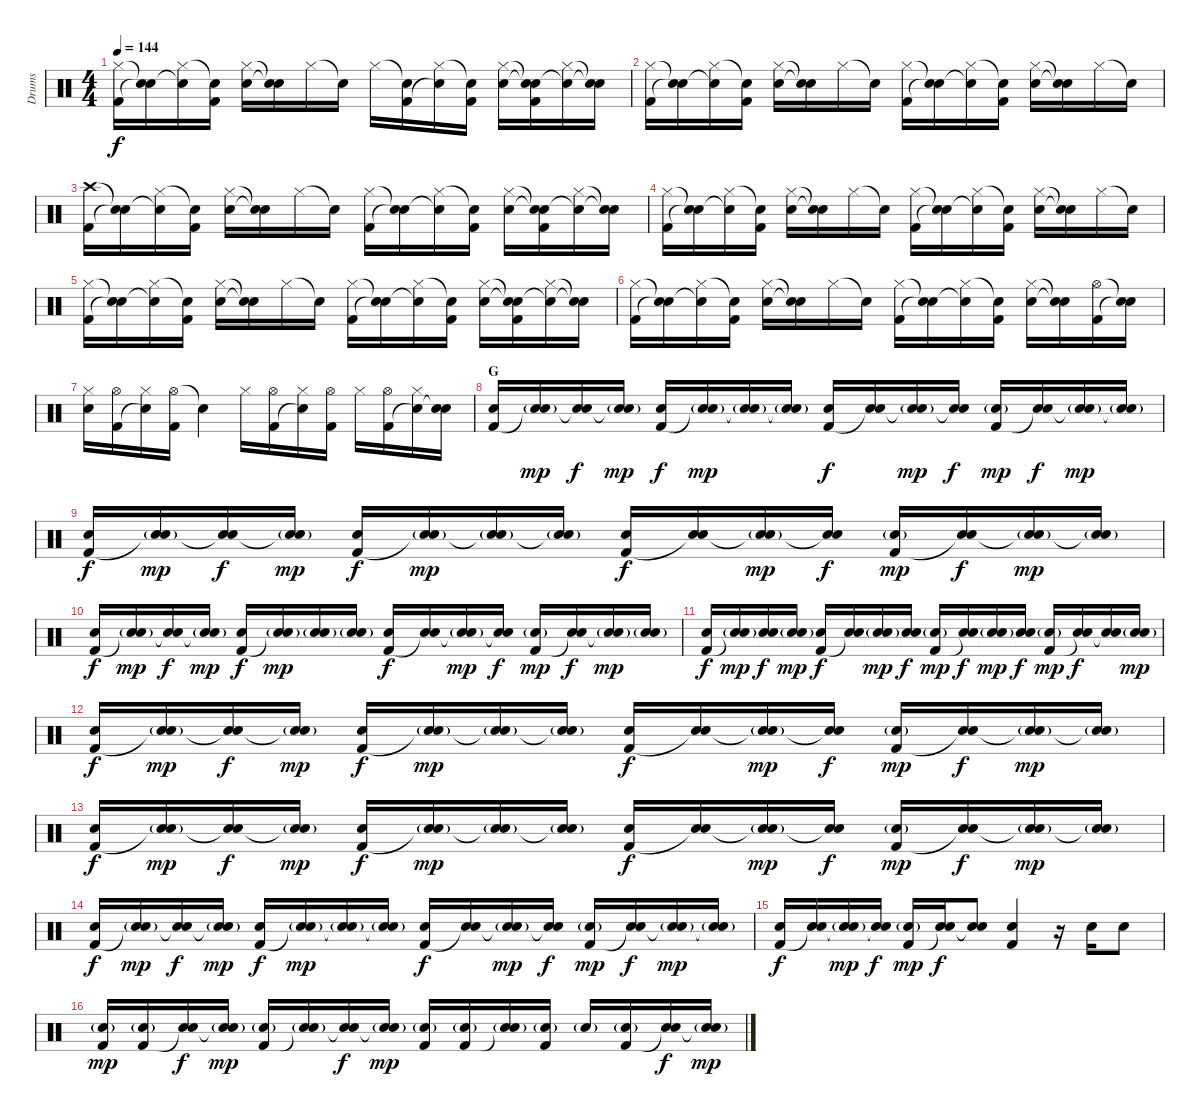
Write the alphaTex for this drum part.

\track ("Drums" "Drums") {instrument percussion}
\staff {score}
\articulation defaults
\ts (4 4)
\tempo 144
\clef neutral
\ks c
("Hi-Hat (closed)" "Kick (hit) 2").16{dy f} ("Snare (hit)"{t} "Snare (hit)"{t}).16 ("Hi-Hat (closed)" "Snare (hit)"{t}).16 ("Snare (hit)"{t} "Kick (hit) 2").16 ("Hi-Hat (closed)" "Snare (hit) 2").16 ("Snare (hit)"{t} "Snare (hit)"{t}).16 "Hi-Hat (closed)".16 "Snare (hit)"{t}.16 "Hi-Hat (closed)".16 ("Snare (hit)"{t} "Kick (hit) 2").16 ("Hi-Hat (closed)" "Snare (hit)"{t}).16 ("Snare (hit)"{t} "Kick (hit) 2").16 ("Hi-Hat (closed)" "Snare (hit) 2").16 ("Snare (hit)"{t} "Snare (hit)"{t} "Kick (hit) 2").16 ("Hi-Hat (closed)" "Snare (hit)"{t}).16 ("Snare (hit)"{t} "Snare (hit)"{t}).16 |
("Hi-Hat (closed)" "Kick (hit) 2").16 ("Snare (hit)"{t} "Snare (hit)"{t}).16 ("Hi-Hat (closed)" "Snare (hit)"{t}).16 ("Snare (hit)"{t} "Kick (hit) 2").16 ("Hi-Hat (closed)" "Snare (hit) 2").16 ("Snare (hit)"{t} "Snare (hit)"{t}).16 "Hi-Hat (closed)".16 "Snare (hit)"{t}.16 ("Hi-Hat (closed)" "Kick (hit) 2").16 ("Snare (hit)"{t} "Snare (hit)"{t}).16 ("Hi-Hat (closed)" "Snare (hit)"{t}).16 ("Snare (hit)"{t} "Kick (hit) 2").16 ("Hi-Hat (closed)" "Snare (hit) 2").16 ("Snare (hit)"{t} "Snare (hit)"{t}).16 "Hi-Hat (closed)".16 "Snare (hit)"{t}.16 |
("Crash high (hit)" "Kick (hit) 2").16 ("Snare (hit)"{t} "Snare (hit)"{t}).16 ("Hi-Hat (closed)" "Snare (hit)"{t}).16 ("Snare (hit)"{t} "Kick (hit) 2").16 ("Hi-Hat (closed)" "Snare (hit) 2").16 ("Snare (hit)"{t} "Snare (hit)"{t}).16 "Hi-Hat (closed)".16 "Snare (hit)"{t}.16 ("Hi-Hat (closed)" "Kick (hit) 2").16 ("Snare (hit)"{t} "Snare (hit)"{t}).16 ("Hi-Hat (closed)" "Snare (hit)"{t}).16 ("Snare (hit)"{t} "Kick (hit) 2").16 ("Hi-Hat (closed)" "Snare (hit) 2").16 ("Snare (hit)"{t} "Snare (hit)"{t} "Kick (hit) 2").16 ("Hi-Hat (closed)" "Snare (hit)"{t}).16 ("Snare (hit)"{t} "Snare (hit)"{t}).16 |
("Hi-Hat (closed)" "Kick (hit) 2").16 ("Snare (hit)"{t} "Snare (hit)"{t}).16 ("Hi-Hat (closed)" "Snare (hit)"{t}).16 ("Snare (hit)"{t} "Kick (hit) 2").16 ("Hi-Hat (closed)" "Snare (hit) 2").16 ("Snare (hit)"{t} "Snare (hit)"{t}).16 "Hi-Hat (closed)".16 "Snare (hit)"{t}.16 ("Hi-Hat (closed)" "Kick (hit) 2").16 ("Snare (hit)"{t} "Snare (hit)"{t}).16 ("Hi-Hat (closed)" "Snare (hit)"{t}).16 ("Snare (hit)"{t} "Kick (hit) 2").16 ("Hi-Hat (closed)" "Snare (hit) 2").16 ("Snare (hit)"{t} "Snare (hit)"{t}).16 "Hi-Hat (closed)".16 "Snare (hit)"{t}.16 |
("Hi-Hat (closed)" "Kick (hit) 2").16 ("Snare (hit)"{t} "Snare (hit)"{t}).16 ("Hi-Hat (closed)" "Snare (hit)"{t}).16 ("Snare (hit)"{t} "Kick (hit) 2").16 ("Hi-Hat (closed)" "Snare (hit) 2").16 ("Snare (hit)"{t} "Snare (hit)"{t}).16 "Hi-Hat (closed)".16 "Snare (hit)"{t}.16 ("Hi-Hat (closed)" "Kick (hit) 2").16 ("Snare (hit)"{t} "Snare (hit)"{t}).16 ("Hi-Hat (closed)" "Snare (hit)"{t}).16 ("Snare (hit)"{t} "Kick (hit) 2").16 ("Hi-Hat (closed)" "Snare (hit) 2").16 ("Snare (hit)"{t} "Snare (hit)"{t} "Kick (hit) 2").16 ("Hi-Hat (closed)" "Snare (hit)"{t}).16 ("Snare (hit)"{t} "Snare (hit)"{t}).16 |
("Hi-Hat (closed)" "Kick (hit) 2").16 ("Snare (hit)"{t} "Snare (hit)"{t}).16 ("Hi-Hat (closed)" "Snare (hit)"{t}).16 ("Snare (hit)"{t} "Kick (hit) 2").16 ("Hi-Hat (closed)" "Snare (hit) 2").16 ("Snare (hit)"{t} "Snare (hit)"{t}).16 "Hi-Hat (closed)".16 "Snare (hit)"{t}.16 ("Hi-Hat (closed)" "Kick (hit) 2").16 ("Snare (hit)"{t} "Snare (hit)"{t}).16 ("Hi-Hat (closed)" "Snare (hit)"{t}).16 ("Snare (hit)"{t} "Kick (hit) 2").16 ("Hi-Hat (closed)" "Snare (hit) 2").16 ("Snare (hit)"{t} "Snare (hit)"{t}).16 ("Hi-Hat (open)" "Kick (hit) 2").16 ("Snare (hit)"{t} "Snare (hit)"{t}).16 |
("Hi-Hat (closed)" "Snare (hit) 2").16 ("Hi-Hat (open)" "Kick (hit) 2").16 ("Hi-Hat (closed)" "Snare (hit)"{t}).16 ("Hi-Hat (open)" "Kick (hit) 2").16 "Snare (hit)"{t}.4 "Hi-Hat (closed)".16 ("Hi-Hat (open)" "Kick (hit) 2").16 ("Hi-Hat (closed)" "Snare (hit)"{t}).16 ("Hi-Hat (open)" "Kick (hit) 2").16 "Hi-Hat (closed)".16 ("Hi-Hat (open)" "Kick (hit) 2").16 ("Hi-Hat (closed)" "Snare (hit)"{t}).16 ("Snare (hit) 2" "Snare (hit)"{t}).16 |
\section ("" "G")
("Snare (hit) 2" "Kick (hit) 2").16 ("Snare (hit) 2"{g} "Snare (hit)"{t}).16{dy mp} ("Snare (hit) 2" "Snare (hit)"{t}).16{dy f} ("Snare (hit) 2"{g} "Snare (hit)"{t}).16{dy mp} ("Snare (hit) 2" "Kick (hit) 2").16{dy f} ("Snare (hit) 2"{g} "Snare (hit)"{t}).16{dy mp} ("Snare (hit) 2"{g} "Snare (hit)"{t}).16 ("Snare (hit) 2"{g} "Snare (hit)"{t}).16 ("Snare (hit) 2" "Kick (hit) 2").16{dy f} ("Snare (hit) 2" "Snare (hit)"{t}).16 ("Snare (hit) 2"{g} "Snare (hit)"{t}).16{dy mp} ("Snare (hit) 2" "Snare (hit)"{t}).16{dy f} ("Snare (hit) 2"{g} "Kick (hit) 2").16{dy mp} ("Snare (hit) 2" "Snare (hit)"{t}).16{dy f} ("Snare (hit) 2"{g} "Snare (hit)"{t}).16{dy mp} ("Snare (hit) 2"{g} "Snare (hit)"{t}).16 |
("Snare (hit) 2" "Kick (hit) 2").16{dy f} ("Snare (hit) 2"{g} "Snare (hit)"{t}).16{dy mp} ("Snare (hit) 2" "Snare (hit)"{t}).16{dy f} ("Snare (hit) 2"{g} "Snare (hit)"{t}).16{dy mp} ("Snare (hit) 2" "Kick (hit) 2").16{dy f} ("Snare (hit) 2"{g} "Snare (hit)"{t}).16{dy mp} ("Snare (hit) 2"{g} "Snare (hit)"{t}).16 ("Snare (hit) 2"{g} "Snare (hit)"{t}).16 ("Snare (hit) 2" "Kick (hit) 2").16{dy f} ("Snare (hit) 2" "Snare (hit)"{t}).16 ("Snare (hit) 2"{g} "Snare (hit)"{t}).16{dy mp} ("Snare (hit) 2" "Snare (hit)"{t}).16{dy f} ("Snare (hit) 2"{g} "Kick (hit) 2").16{dy mp} ("Snare (hit) 2" "Snare (hit)"{t}).16{dy f} ("Snare (hit) 2"{g} "Snare (hit)"{t}).16{dy mp} ("Snare (hit) 2"{g} "Snare (hit)"{t}).16 |
("Snare (hit) 2" "Kick (hit) 2").16{dy f} ("Snare (hit) 2"{g} "Snare (hit)"{t}).16{dy mp} ("Snare (hit) 2" "Snare (hit)"{t}).16{dy f} ("Snare (hit) 2"{g} "Snare (hit)"{t}).16{dy mp} ("Snare (hit) 2" "Kick (hit) 2").16{dy f} ("Snare (hit) 2"{g} "Snare (hit)"{t}).16{dy mp} ("Snare (hit) 2"{g} "Snare (hit)"{t}).16 ("Snare (hit) 2"{g} "Snare (hit)"{t}).16 ("Snare (hit) 2" "Kick (hit) 2").16{dy f} ("Snare (hit) 2" "Snare (hit)"{t}).16 ("Snare (hit) 2"{g} "Snare (hit)"{t}).16{dy mp} ("Snare (hit) 2" "Snare (hit)"{t}).16{dy f} ("Snare (hit) 2"{g} "Kick (hit) 2").16{dy mp} ("Snare (hit) 2" "Snare (hit)"{t}).16{dy f} ("Snare (hit) 2"{g} "Snare (hit)"{t}).16{dy mp} ("Snare (hit) 2"{g} "Snare (hit)"{t}).16 |
("Snare (hit) 2" "Kick (hit) 2").16{dy f} ("Snare (hit) 2"{g} "Snare (hit)"{t}).16{dy mp} ("Snare (hit) 2" "Snare (hit)"{t}).16{dy f} ("Snare (hit) 2"{g} "Snare (hit)"{t}).16{dy mp} ("Snare (hit) 2" "Kick (hit) 2").16{dy f} ("Snare (hit) 2" "Snare (hit)"{t}).16 ("Snare (hit) 2"{g} "Snare (hit)"{t}).16{dy mp} ("Snare (hit) 2" "Snare (hit)"{t}).16{dy f} ("Snare (hit) 2"{g} "Kick (hit) 2").16{dy mp} ("Snare (hit) 2" "Snare (hit)"{t}).16{dy f} ("Snare (hit) 2"{g} "Snare (hit)"{t}).16{dy mp} ("Snare (hit) 2" "Snare (hit)"{t}).16{dy f} ("Snare (hit) 2"{g} "Kick (hit) 2").16{dy mp} ("Snare (hit) 2" "Snare (hit)"{t}).16{dy f} ("Snare (hit) 2" "Snare (hit)"{t}).16 ("Snare (hit) 2"{g} "Snare (hit)"{t}).16{dy mp} |
("Snare (hit) 2" "Kick (hit) 2").16{dy f} ("Snare (hit) 2"{g} "Snare (hit)"{t}).16{dy mp} ("Snare (hit) 2" "Snare (hit)"{t}).16{dy f} ("Snare (hit) 2"{g} "Snare (hit)"{t}).16{dy mp} ("Snare (hit) 2" "Kick (hit) 2").16{dy f} ("Snare (hit) 2"{g} "Snare (hit)"{t}).16{dy mp} ("Snare (hit) 2"{g} "Snare (hit)"{t}).16 ("Snare (hit) 2"{g} "Snare (hit)"{t}).16 ("Snare (hit) 2" "Kick (hit) 2").16{dy f} ("Snare (hit) 2" "Snare (hit)"{t}).16 ("Snare (hit) 2"{g} "Snare (hit)"{t}).16{dy mp} ("Snare (hit) 2" "Snare (hit)"{t}).16{dy f} ("Snare (hit) 2"{g} "Kick (hit) 2").16{dy mp} ("Snare (hit) 2" "Snare (hit)"{t}).16{dy f} ("Snare (hit) 2"{g} "Snare (hit)"{t}).16{dy mp} ("Snare (hit) 2"{g} "Snare (hit)"{t}).16 |
("Snare (hit) 2" "Kick (hit) 2").16{dy f} ("Snare (hit) 2"{g} "Snare (hit)"{t}).16{dy mp} ("Snare (hit) 2" "Snare (hit)"{t}).16{dy f} ("Snare (hit) 2"{g} "Snare (hit)"{t}).16{dy mp} ("Snare (hit) 2" "Kick (hit) 2").16{dy f} ("Snare (hit) 2"{g} "Snare (hit)"{t}).16{dy mp} ("Snare (hit) 2"{g} "Snare (hit)"{t}).16 ("Snare (hit) 2"{g} "Snare (hit)"{t}).16 ("Snare (hit) 2" "Kick (hit) 2").16{dy f} ("Snare (hit) 2" "Snare (hit)"{t}).16 ("Snare (hit) 2"{g} "Snare (hit)"{t}).16{dy mp} ("Snare (hit) 2" "Snare (hit)"{t}).16{dy f} ("Snare (hit) 2"{g} "Kick (hit) 2").16{dy mp} ("Snare (hit) 2" "Snare (hit)"{t}).16{dy f} ("Snare (hit) 2"{g} "Snare (hit)"{t}).16{dy mp} ("Snare (hit) 2"{g} "Snare (hit)"{t}).16 |
("Snare (hit) 2" "Kick (hit) 2").16{dy f} ("Snare (hit) 2"{g} "Snare (hit)"{t}).16{dy mp} ("Snare (hit) 2" "Snare (hit)"{t}).16{dy f} ("Snare (hit) 2"{g} "Snare (hit)"{t}).16{dy mp} ("Snare (hit) 2" "Kick (hit) 2").16{dy f} ("Snare (hit) 2"{g} "Snare (hit)"{t}).16{dy mp} ("Snare (hit) 2"{g} "Snare (hit)"{t}).16 ("Snare (hit) 2"{g} "Snare (hit)"{t}).16 ("Snare (hit) 2" "Kick (hit) 2").16{dy f} ("Snare (hit) 2" "Snare (hit)"{t}).16 ("Snare (hit) 2"{g} "Snare (hit)"{t}).16{dy mp} ("Snare (hit) 2" "Snare (hit)"{t}).16{dy f} ("Snare (hit) 2"{g} "Kick (hit) 2").16{dy mp} ("Snare (hit) 2" "Snare (hit)"{t}).16{dy f} ("Snare (hit) 2"{g} "Snare (hit)"{t}).16{dy mp} ("Snare (hit) 2"{g} "Snare (hit)"{t}).16 |
("Snare (hit) 2" "Kick (hit) 2").16{dy f} ("Snare (hit) 2" "Snare (hit)"{t}).16 ("Snare (hit) 2"{g} "Snare (hit)"{t}).16{dy mp} ("Snare (hit) 2" "Snare (hit)"{t}).16{dy f} ("Snare (hit) 2"{g} "Kick (hit) 2").16{dy mp} ("Snare (hit) 2" "Snare (hit)"{t}).16{dy f} ("Snare (hit) 2" "Snare (hit)"{t}).8 ("Snare (hit) 2" "Kick (hit) 2").4 r.16 "Snare (hit) 2".16 "Snare (hit) 2".8 |
("Snare (hit) 2"{g} "Kick (hit) 2").16{dy mp} ("Snare (hit) 2"{g} "Kick (hit) 2").16 ("Snare (hit) 2" "Snare (hit)"{t}).16{dy f} ("Snare (hit) 2"{g} "Snare (hit)"{t}).16{dy mp} ("Snare (hit) 2"{g} "Kick (hit) 2").16 ("Snare (hit) 2"{g} "Snare (hit)"{t}).16 ("Snare (hit) 2" "Snare (hit)"{t}).16{dy f} ("Snare (hit) 2"{g} "Snare (hit)"{t}).16{dy mp} ("Snare (hit) 2"{g} "Kick (hit) 2").16 ("Snare (hit) 2"{g} "Kick (hit) 2").16 ("Snare (hit) 2"{g} "Snare (hit)"{t}).16 ("Snare (hit) 2"{g} "Kick (hit) 2").16 "Snare (hit) 2"{g}.16 ("Snare (hit) 2"{g} "Kick (hit) 2").16 ("Snare (hit) 2" "Snare (hit)"{t}).16{dy f} ("Snare (hit) 2"{g} "Snare (hit)"{t}).16{dy mp}
